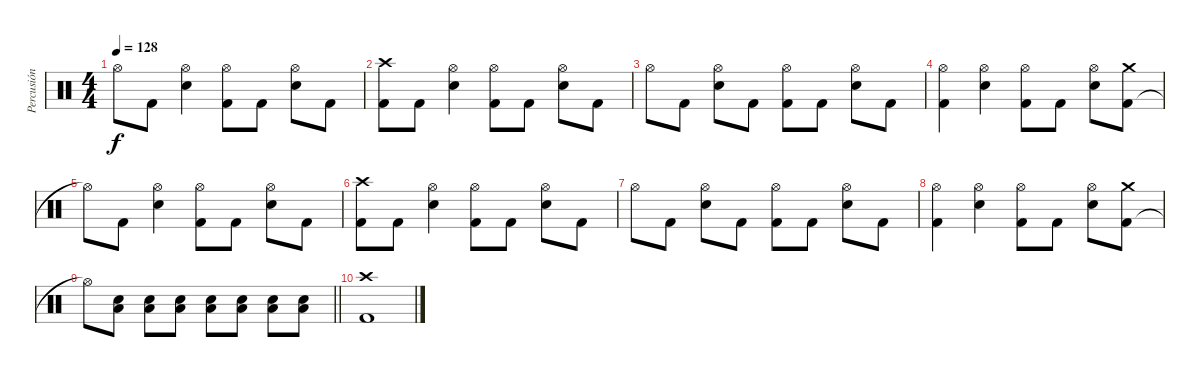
\track ("Percusión" "Percusión") {instrument percussion}
\staff {score}
\articulation defaults
\ts (4 4)
\tempo 128
\clef neutral
\ks c "Hi-Hat (open)"{t}.8{dy f} "Kick (hit) 2".8
("Electric Snare (hit)" "Hi-Hat (open)").4 ("Kick (hit) 2" "Hi-Hat (open)").8 "Kick (hit) 2".8 ("Electric Snare (hit)" "Hi-Hat (open)").8 "Kick (hit) 2".8 |
("Kick (hit) 2" "Crash high (hit)").8 "Kick (hit) 2".8 ("Electric Snare (hit)" "Hi-Hat (open)").4 ("Kick (hit) 2" "Hi-Hat (open)").8 "Kick (hit) 2".8 ("Electric Snare (hit)" "Hi-Hat (open)").8 "Kick (hit) 2".8 |
"Hi-Hat (open)".8 "Kick (hit) 2".8 ("Electric Snare (hit)" "Hi-Hat (open)").8 "Kick (hit) 2".8 ("Kick (hit) 2" "Hi-Hat (open)").8 "Kick (hit) 2".8 ("Electric Snare (hit)" "Hi-Hat (open)").8 "Kick (hit) 2".8 |
("Kick (hit) 2" "Hi-Hat (open)").4 ("Electric Snare (hit)" "Hi-Hat (open)").4 ("Kick (hit) 2" "Hi-Hat (open)").8 "Kick (hit) 2".8 ("Electric Snare (hit)" "Hi-Hat (open)").8 ("Kick (hit) 2" "Crash medium (hit)").8 |
"Hi-Hat (open)"{t}.8 "Kick (hit) 2".8 ("Electric Snare (hit)" "Hi-Hat (open)").4 ("Kick (hit) 2" "Hi-Hat (open)").8 "Kick (hit) 2".8 ("Electric Snare (hit)" "Hi-Hat (open)").8 "Kick (hit) 2".8 |
("Kick (hit) 2" "Crash high (hit)").8 "Kick (hit) 2".8 ("Electric Snare (hit)" "Hi-Hat (open)").4 ("Kick (hit) 2" "Hi-Hat (open)").8 "Kick (hit) 2".8 ("Electric Snare (hit)" "Hi-Hat (open)").8 "Kick (hit) 2".8 |
"Hi-Hat (open)".8 "Kick (hit) 2".8 ("Electric Snare (hit)" "Hi-Hat (open)").8 "Kick (hit) 2".8 ("Kick (hit) 2" "Hi-Hat (open)").8 "Kick (hit) 2".8 ("Electric Snare (hit)" "Hi-Hat (open)").8 "Kick (hit) 2".8 |
("Kick (hit) 2" "Hi-Hat (open)").4 ("Electric Snare (hit)" "Hi-Hat (open)").4 ("Kick (hit) 2" "Hi-Hat (open)").8 "Kick (hit) 2".8 ("Electric Snare (hit)" "Hi-Hat (open)").8 ("Kick (hit) 2" "Crash medium (hit)").8 |
\barLineRight lightlight "Hi-Hat (open)"{t}.8
("Low Floor Tom (hit)" "Electric Snare (hit)").8 ("Low Floor Tom (hit)" "Electric Snare (hit)").8 ("Low Floor Tom (hit)" "Electric Snare (hit)").8 ("Low Floor Tom (hit)" "Electric Snare (hit)").8 ("Low Floor Tom (hit)" "Electric Snare (hit)").8 ("Low Floor Tom (hit)" "Electric Snare (hit)").8 ("Low Floor Tom (hit)" "Electric Snare (hit)").8 |
("Kick (hit) 2" "Crash high (hit)").1
